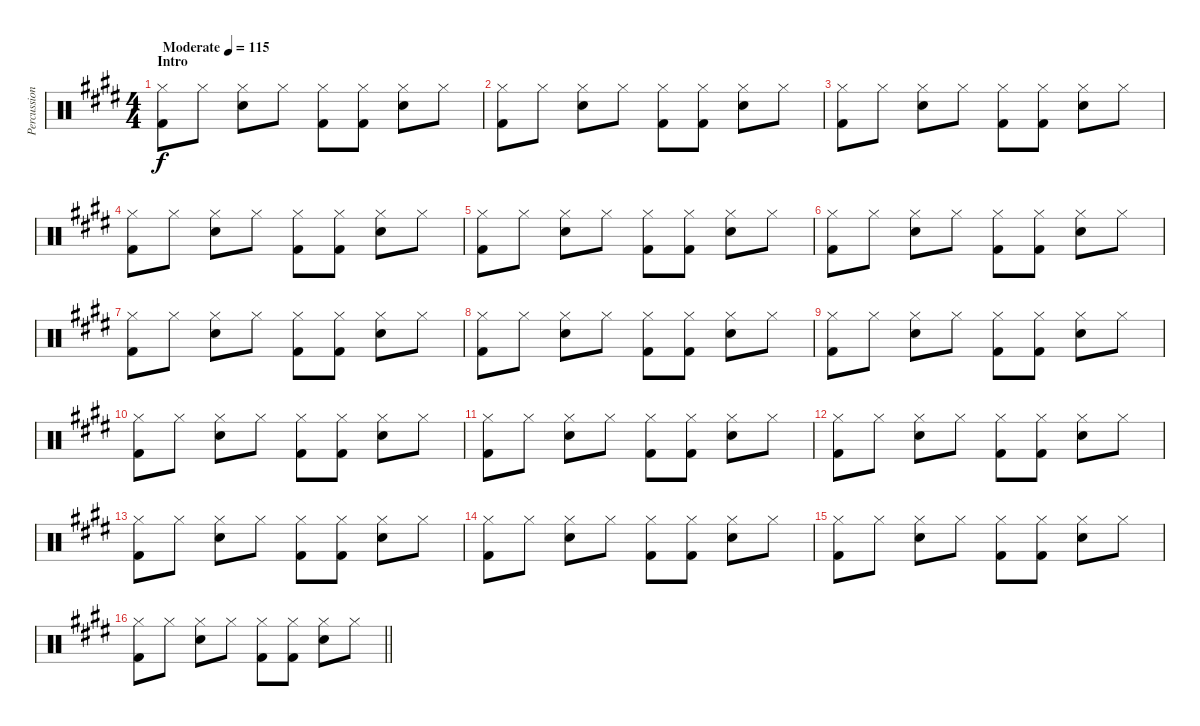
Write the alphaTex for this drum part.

\track ("Percussion" "Percussion") {instrument percussion}
\staff {score}
\articulation defaults
\ts (4 4)
\section ("" "Intro")
\tempo (115 "Moderate")
\clef neutral
\ks e
("Kick (hit) 2" "Hi-Hat (closed)").8{dy f} "Hi-Hat (closed)".8 ("Electric Snare (hit)" "Hi-Hat (closed)").8 "Hi-Hat (closed)".8 ("Kick (hit) 2" "Hi-Hat (closed)").8 ("Kick (hit) 2" "Hi-Hat (closed)").8 ("Electric Snare (hit)" "Hi-Hat (closed)").8 "Hi-Hat (closed)".8 |
("Kick (hit) 2" "Hi-Hat (closed)").8 "Hi-Hat (closed)".8 ("Electric Snare (hit)" "Hi-Hat (closed)").8 "Hi-Hat (closed)".8 ("Kick (hit) 2" "Hi-Hat (closed)").8 ("Kick (hit) 2" "Hi-Hat (closed)").8 ("Electric Snare (hit)" "Hi-Hat (closed)").8 "Hi-Hat (closed)".8 |
("Kick (hit) 2" "Hi-Hat (closed)").8 "Hi-Hat (closed)".8 ("Electric Snare (hit)" "Hi-Hat (closed)").8 "Hi-Hat (closed)".8 ("Kick (hit) 2" "Hi-Hat (closed)").8 ("Kick (hit) 2" "Hi-Hat (closed)").8 ("Electric Snare (hit)" "Hi-Hat (closed)").8 "Hi-Hat (closed)".8 |
("Kick (hit) 2" "Hi-Hat (closed)").8 "Hi-Hat (closed)".8 ("Electric Snare (hit)" "Hi-Hat (closed)").8 "Hi-Hat (closed)".8 ("Kick (hit) 2" "Hi-Hat (closed)").8 ("Kick (hit) 2" "Hi-Hat (closed)").8 ("Electric Snare (hit)" "Hi-Hat (closed)").8 "Hi-Hat (closed)".8 |
("Kick (hit) 2" "Hi-Hat (closed)").8 "Hi-Hat (closed)".8 ("Electric Snare (hit)" "Hi-Hat (closed)").8 "Hi-Hat (closed)".8 ("Kick (hit) 2" "Hi-Hat (closed)").8 ("Kick (hit) 2" "Hi-Hat (closed)").8 ("Electric Snare (hit)" "Hi-Hat (closed)").8 "Hi-Hat (closed)".8 |
("Kick (hit) 2" "Hi-Hat (closed)").8 "Hi-Hat (closed)".8 ("Electric Snare (hit)" "Hi-Hat (closed)").8 "Hi-Hat (closed)".8 ("Kick (hit) 2" "Hi-Hat (closed)").8 ("Kick (hit) 2" "Hi-Hat (closed)").8 ("Electric Snare (hit)" "Hi-Hat (closed)").8 "Hi-Hat (closed)".8 |
("Kick (hit) 2" "Hi-Hat (closed)").8 "Hi-Hat (closed)".8 ("Electric Snare (hit)" "Hi-Hat (closed)").8 "Hi-Hat (closed)".8 ("Kick (hit) 2" "Hi-Hat (closed)").8 ("Kick (hit) 2" "Hi-Hat (closed)").8 ("Electric Snare (hit)" "Hi-Hat (closed)").8 "Hi-Hat (closed)".8 |
("Kick (hit) 2" "Hi-Hat (closed)").8 "Hi-Hat (closed)".8 ("Electric Snare (hit)" "Hi-Hat (closed)").8 "Hi-Hat (closed)".8 ("Kick (hit) 2" "Hi-Hat (closed)").8 ("Kick (hit) 2" "Hi-Hat (closed)").8 ("Electric Snare (hit)" "Hi-Hat (closed)").8 "Hi-Hat (closed)".8 |
("Kick (hit) 2" "Hi-Hat (closed)").8 "Hi-Hat (closed)".8 ("Electric Snare (hit)" "Hi-Hat (closed)").8 "Hi-Hat (closed)".8 ("Kick (hit) 2" "Hi-Hat (closed)").8 ("Kick (hit) 2" "Hi-Hat (closed)").8 ("Electric Snare (hit)" "Hi-Hat (closed)").8 "Hi-Hat (closed)".8 |
("Kick (hit) 2" "Hi-Hat (closed)").8 "Hi-Hat (closed)".8 ("Electric Snare (hit)" "Hi-Hat (closed)").8 "Hi-Hat (closed)".8 ("Kick (hit) 2" "Hi-Hat (closed)").8 ("Kick (hit) 2" "Hi-Hat (closed)").8 ("Electric Snare (hit)" "Hi-Hat (closed)").8 "Hi-Hat (closed)".8 |
("Kick (hit) 2" "Hi-Hat (closed)").8 "Hi-Hat (closed)".8 ("Electric Snare (hit)" "Hi-Hat (closed)").8 "Hi-Hat (closed)".8 ("Kick (hit) 2" "Hi-Hat (closed)").8 ("Kick (hit) 2" "Hi-Hat (closed)").8 ("Electric Snare (hit)" "Hi-Hat (closed)").8 "Hi-Hat (closed)".8 |
("Kick (hit) 2" "Hi-Hat (closed)").8 "Hi-Hat (closed)".8 ("Electric Snare (hit)" "Hi-Hat (closed)").8 "Hi-Hat (closed)".8 ("Kick (hit) 2" "Hi-Hat (closed)").8 ("Kick (hit) 2" "Hi-Hat (closed)").8 ("Electric Snare (hit)" "Hi-Hat (closed)").8 "Hi-Hat (closed)".8 |
("Kick (hit) 2" "Hi-Hat (closed)").8 "Hi-Hat (closed)".8 ("Electric Snare (hit)" "Hi-Hat (closed)").8 "Hi-Hat (closed)".8 ("Kick (hit) 2" "Hi-Hat (closed)").8 ("Kick (hit) 2" "Hi-Hat (closed)").8 ("Electric Snare (hit)" "Hi-Hat (closed)").8 "Hi-Hat (closed)".8 |
("Kick (hit) 2" "Hi-Hat (closed)").8 "Hi-Hat (closed)".8 ("Electric Snare (hit)" "Hi-Hat (closed)").8 "Hi-Hat (closed)".8 ("Kick (hit) 2" "Hi-Hat (closed)").8 ("Kick (hit) 2" "Hi-Hat (closed)").8 ("Electric Snare (hit)" "Hi-Hat (closed)").8 "Hi-Hat (closed)".8 |
("Kick (hit) 2" "Hi-Hat (closed)").8 "Hi-Hat (closed)".8 ("Electric Snare (hit)" "Hi-Hat (closed)").8 "Hi-Hat (closed)".8 ("Kick (hit) 2" "Hi-Hat (closed)").8 ("Kick (hit) 2" "Hi-Hat (closed)").8 ("Electric Snare (hit)" "Hi-Hat (closed)").8 "Hi-Hat (closed)".8 |
\barLineRight lightlight
("Kick (hit) 2" "Hi-Hat (closed)").8 "Hi-Hat (closed)".8 ("Electric Snare (hit)" "Hi-Hat (closed)").8 "Hi-Hat (closed)".8 ("Kick (hit) 2" "Hi-Hat (closed)").8 ("Kick (hit) 2" "Hi-Hat (closed)").8 ("Electric Snare (hit)" "Hi-Hat (closed)").8 "Hi-Hat (closed)".8
